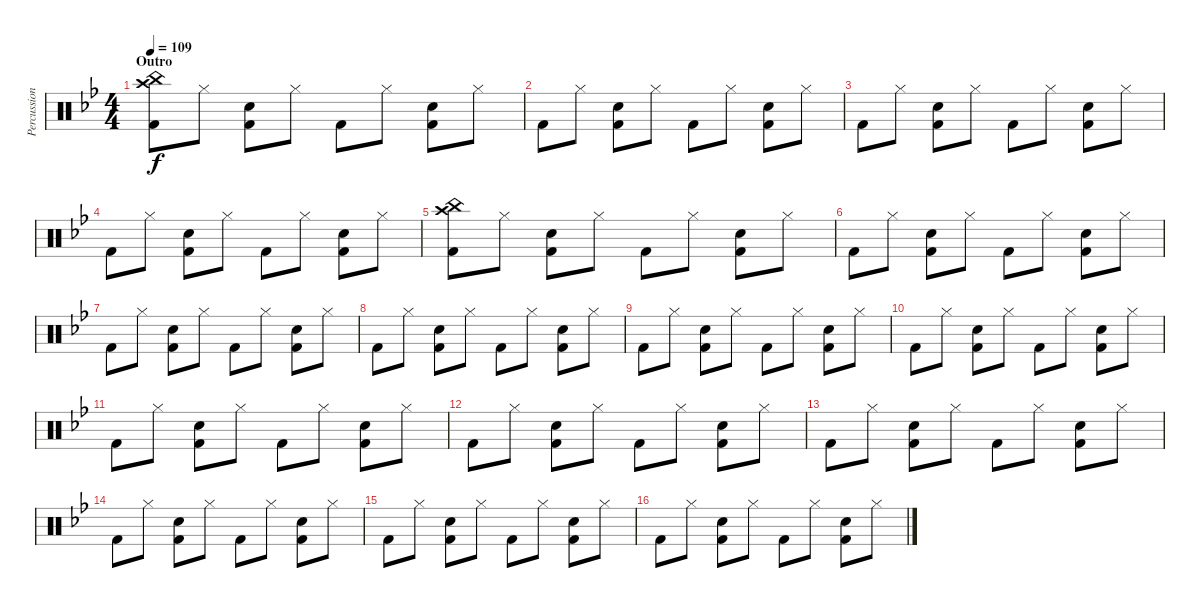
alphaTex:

\track ("Percussions" "Percussion") {instrument percussion}
\staff {score}
\articulation defaults
\ts (4 4)
\section ("" "Outro")
\tempo 109
\clef neutral
\ks bb
("China (hit)" "Crash high (hit)" "Kick (hit) 2").8{dy f} "Hi-Hat (closed)".8 ("Snare (hit) 2" "Kick (hit) 2").8 "Hi-Hat (closed)".8 "Kick (hit) 2".8 "Hi-Hat (closed)".8 ("Snare (hit) 2" "Kick (hit) 2").8 "Hi-Hat (closed)".8 |
"Kick (hit) 2".8 "Hi-Hat (closed)".8 ("Snare (hit) 2" "Kick (hit) 2").8 "Hi-Hat (closed)".8 "Kick (hit) 2".8 "Hi-Hat (closed)".8 ("Snare (hit) 2" "Kick (hit) 2").8 "Hi-Hat (closed)".8 |
"Kick (hit) 2".8 "Hi-Hat (closed)".8 ("Snare (hit) 2" "Kick (hit) 2").8 "Hi-Hat (closed)".8 "Kick (hit) 2".8 "Hi-Hat (closed)".8 ("Snare (hit) 2" "Kick (hit) 2").8 "Hi-Hat (closed)".8 |
"Kick (hit) 2".8 "Hi-Hat (closed)".8 ("Snare (hit) 2" "Kick (hit) 2").8 "Hi-Hat (closed)".8 "Kick (hit) 2".8 "Hi-Hat (closed)".8 ("Snare (hit) 2" "Kick (hit) 2").8 "Hi-Hat (closed)".8 |
("China (hit)" "Crash high (hit)" "Kick (hit) 2").8 "Hi-Hat (closed)".8 ("Snare (hit) 2" "Kick (hit) 2").8 "Hi-Hat (closed)".8 "Kick (hit) 2".8 "Hi-Hat (closed)".8 ("Snare (hit) 2" "Kick (hit) 2").8 "Hi-Hat (closed)".8 |
"Kick (hit) 2".8 "Hi-Hat (closed)".8 ("Snare (hit) 2" "Kick (hit) 2").8 "Hi-Hat (closed)".8 "Kick (hit) 2".8 "Hi-Hat (closed)".8 ("Snare (hit) 2" "Kick (hit) 2").8 "Hi-Hat (closed)".8 |
"Kick (hit) 2".8 "Hi-Hat (closed)".8 ("Snare (hit) 2" "Kick (hit) 2").8 "Hi-Hat (closed)".8 "Kick (hit) 2".8 "Hi-Hat (closed)".8 ("Snare (hit) 2" "Kick (hit) 2").8 "Hi-Hat (closed)".8 |
"Kick (hit) 2".8 "Hi-Hat (closed)".8 ("Snare (hit) 2" "Kick (hit) 2").8 "Hi-Hat (closed)".8 "Kick (hit) 2".8 "Hi-Hat (closed)".8 ("Snare (hit) 2" "Kick (hit) 2").8 "Hi-Hat (closed)".8 |
"Kick (hit) 2".8 "Hi-Hat (closed)".8 ("Snare (hit) 2" "Kick (hit) 2").8 "Hi-Hat (closed)".8 "Kick (hit) 2".8 "Hi-Hat (closed)".8 ("Snare (hit) 2" "Kick (hit) 2").8 "Hi-Hat (closed)".8 |
"Kick (hit) 2".8 "Hi-Hat (closed)".8 ("Snare (hit) 2" "Kick (hit) 2").8 "Hi-Hat (closed)".8 "Kick (hit) 2".8 "Hi-Hat (closed)".8 ("Snare (hit) 2" "Kick (hit) 2").8 "Hi-Hat (closed)".8 |
"Kick (hit) 2".8 "Hi-Hat (closed)".8 ("Snare (hit) 2" "Kick (hit) 2").8 "Hi-Hat (closed)".8 "Kick (hit) 2".8 "Hi-Hat (closed)".8 ("Snare (hit) 2" "Kick (hit) 2").8 "Hi-Hat (closed)".8 |
"Kick (hit) 2".8 "Hi-Hat (closed)".8 ("Snare (hit) 2" "Kick (hit) 2").8 "Hi-Hat (closed)".8 "Kick (hit) 2".8 "Hi-Hat (closed)".8 ("Snare (hit) 2" "Kick (hit) 2").8 "Hi-Hat (closed)".8 |
"Kick (hit) 2".8 "Hi-Hat (closed)".8 ("Snare (hit) 2" "Kick (hit) 2").8 "Hi-Hat (closed)".8 "Kick (hit) 2".8 "Hi-Hat (closed)".8 ("Snare (hit) 2" "Kick (hit) 2").8 "Hi-Hat (closed)".8 |
"Kick (hit) 2".8 "Hi-Hat (closed)".8 ("Snare (hit) 2" "Kick (hit) 2").8 "Hi-Hat (closed)".8 "Kick (hit) 2".8 "Hi-Hat (closed)".8 ("Snare (hit) 2" "Kick (hit) 2").8 "Hi-Hat (closed)".8 |
"Kick (hit) 2".8 "Hi-Hat (closed)".8 ("Snare (hit) 2" "Kick (hit) 2").8 "Hi-Hat (closed)".8 "Kick (hit) 2".8 "Hi-Hat (closed)".8 ("Snare (hit) 2" "Kick (hit) 2").8 "Hi-Hat (closed)".8 |
"Kick (hit) 2".8 "Hi-Hat (closed)".8 ("Snare (hit) 2" "Kick (hit) 2").8 "Hi-Hat (closed)".8 "Kick (hit) 2".8 "Hi-Hat (closed)".8 ("Snare (hit) 2" "Kick (hit) 2").8 "Hi-Hat (closed)".8
